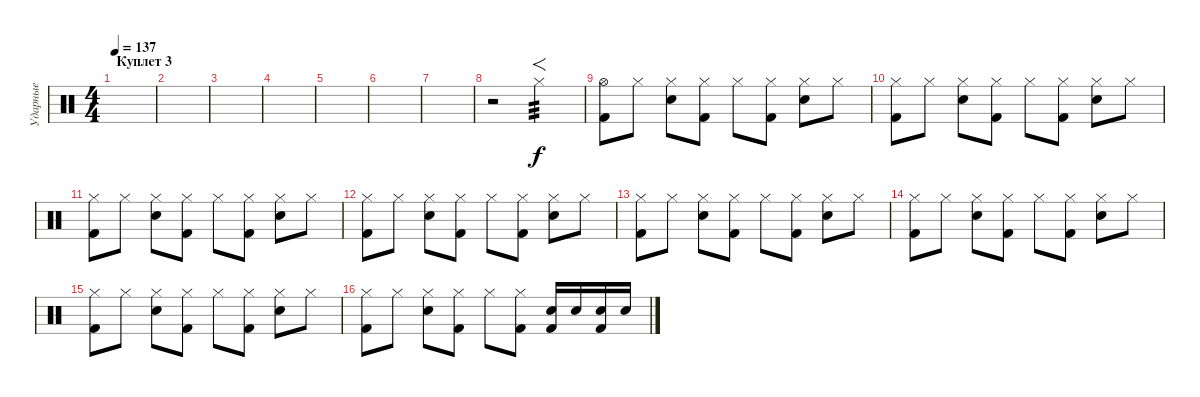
\track ("Ударные" "Ударные") {instrument percussion}
\staff {score}
\articulation defaults
\ts (4 4)
\section ("" "Куплет 3")
\tempo 137
\clef neutral
\ks c
|
|
|
|
|
|
|
r.2 "Hi-Hat (closed)".2{f tp 3} |
("Hi-Hat (open)" "Kick (hit) 2").8 "Hi-Hat (closed)".8 ("Hi-Hat (closed)" "Electric Snare (hit)").8 ("Hi-Hat (closed)" "Kick (hit) 2").8 "Hi-Hat (closed)".8 ("Hi-Hat (closed)" "Kick (hit) 2").8 ("Hi-Hat (closed)" "Electric Snare (hit)").8 "Hi-Hat (closed)".8 |
("Hi-Hat (closed)" "Kick (hit) 2").8 "Hi-Hat (closed)".8 ("Hi-Hat (closed)" "Electric Snare (hit)").8 ("Hi-Hat (closed)" "Kick (hit) 2").8 "Hi-Hat (closed)".8 ("Hi-Hat (closed)" "Kick (hit) 2").8 ("Hi-Hat (closed)" "Electric Snare (hit)").8 "Hi-Hat (closed)".8 |
("Hi-Hat (closed)" "Kick (hit) 2").8 "Hi-Hat (closed)".8 ("Hi-Hat (closed)" "Electric Snare (hit)").8 ("Hi-Hat (closed)" "Kick (hit) 2").8 "Hi-Hat (closed)".8 ("Hi-Hat (closed)" "Kick (hit) 2").8 ("Hi-Hat (closed)" "Electric Snare (hit)").8 "Hi-Hat (closed)".8 |
("Hi-Hat (closed)" "Kick (hit) 2").8 "Hi-Hat (closed)".8 ("Hi-Hat (closed)" "Electric Snare (hit)").8 ("Hi-Hat (closed)" "Kick (hit) 2").8 "Hi-Hat (closed)".8 ("Hi-Hat (closed)" "Kick (hit) 2").8 ("Hi-Hat (closed)" "Electric Snare (hit)").8 "Hi-Hat (closed)".8 |
("Hi-Hat (closed)" "Kick (hit) 2").8 "Hi-Hat (closed)".8 ("Hi-Hat (closed)" "Electric Snare (hit)").8 ("Hi-Hat (closed)" "Kick (hit) 2").8 "Hi-Hat (closed)".8 ("Hi-Hat (closed)" "Kick (hit) 2").8 ("Hi-Hat (closed)" "Electric Snare (hit)").8 "Hi-Hat (closed)".8 |
("Hi-Hat (closed)" "Kick (hit) 2").8 "Hi-Hat (closed)".8 ("Hi-Hat (closed)" "Electric Snare (hit)").8 ("Hi-Hat (closed)" "Kick (hit) 2").8 "Hi-Hat (closed)".8 ("Hi-Hat (closed)" "Kick (hit) 2").8 ("Hi-Hat (closed)" "Electric Snare (hit)").8 "Hi-Hat (closed)".8 |
("Hi-Hat (closed)" "Kick (hit) 2").8 "Hi-Hat (closed)".8 ("Hi-Hat (closed)" "Electric Snare (hit)").8 ("Hi-Hat (closed)" "Kick (hit) 2").8 "Hi-Hat (closed)".8 ("Hi-Hat (closed)" "Kick (hit) 2").8 ("Hi-Hat (closed)" "Electric Snare (hit)").8 "Hi-Hat (closed)".8 |
("Hi-Hat (closed)" "Kick (hit) 2").8 "Hi-Hat (closed)".8 ("Hi-Hat (closed)" "Electric Snare (hit)").8 ("Hi-Hat (closed)" "Kick (hit) 2").8 "Hi-Hat (closed)".8 ("Hi-Hat (closed)" "Kick (hit) 2").8 ("Kick (hit) 2" "Electric Snare (hit)").16 "Electric Snare (hit)".16 ("Kick (hit) 2" "Electric Snare (hit)").16 "Electric Snare (hit)".16
